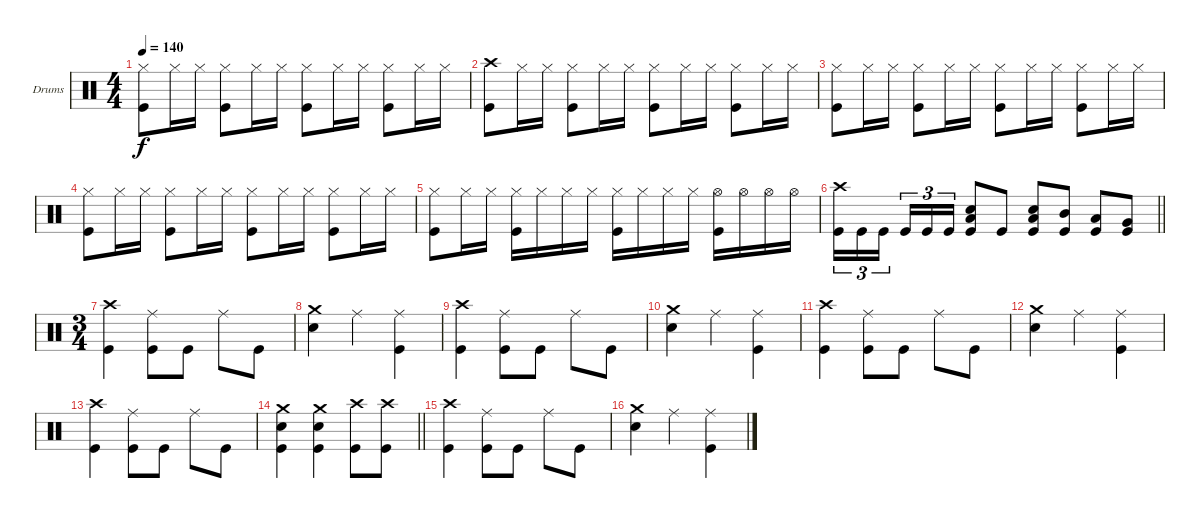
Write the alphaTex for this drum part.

\bracketExtendMode groupsimilarinstruments
\firstSystemTrackNameOrientation horizontal
\otherSystemsTrackNameOrientation horizontal
\track ("Drumkit" "Drums") {instrument percussion}
\staff {score}
\articulation defaults
\ts (4 4)
\tempo 140
\clef neutral
\ks c
("Hi-Hat (closed)" "Kick (hit)").8{dy f} "Hi-Hat (closed)".16 "Hi-Hat (closed)".16 ("Hi-Hat (closed)" "Kick (hit)").8 "Hi-Hat (closed)".16 "Hi-Hat (closed)".16 ("Hi-Hat (closed)" "Kick (hit)").8 "Hi-Hat (closed)".16 "Hi-Hat (closed)".16 ("Hi-Hat (closed)" "Kick (hit)").8 "Hi-Hat (closed)".16 "Hi-Hat (closed)".16 |
("Crash high (hit)" "Kick (hit)").8 "Hi-Hat (closed)".16 "Hi-Hat (closed)".16 ("Hi-Hat (closed)" "Kick (hit)").8 "Hi-Hat (closed)".16 "Hi-Hat (closed)".16 ("Hi-Hat (closed)" "Kick (hit)").8 "Hi-Hat (closed)".16 "Hi-Hat (closed)".16 ("Hi-Hat (closed)" "Kick (hit)").8 "Hi-Hat (closed)".16 "Hi-Hat (closed)".16 |
("Hi-Hat (closed)" "Kick (hit)").8 "Hi-Hat (closed)".16 "Hi-Hat (closed)".16 ("Hi-Hat (closed)" "Kick (hit)").8 "Hi-Hat (closed)".16 "Hi-Hat (closed)".16 ("Hi-Hat (closed)" "Kick (hit)").8 "Hi-Hat (closed)".16 "Hi-Hat (closed)".16 ("Hi-Hat (closed)" "Kick (hit)").8 "Hi-Hat (closed)".16 "Hi-Hat (closed)".16 |
("Hi-Hat (closed)" "Kick (hit)").8 "Hi-Hat (closed)".16 "Hi-Hat (closed)".16 ("Hi-Hat (closed)" "Kick (hit)").8 "Hi-Hat (closed)".16 "Hi-Hat (closed)".16 ("Hi-Hat (closed)" "Kick (hit)").8 "Hi-Hat (closed)".16 "Hi-Hat (closed)".16 ("Hi-Hat (closed)" "Kick (hit)").8 "Hi-Hat (closed)".16 "Hi-Hat (closed)".16 |
("Hi-Hat (closed)" "Kick (hit)").8 "Hi-Hat (closed)".16 "Hi-Hat (closed)".16 ("Hi-Hat (closed)" "Kick (hit)").16 "Hi-Hat (closed)".16 "Hi-Hat (closed)".16 "Hi-Hat (closed)".16 ("Hi-Hat (closed)" "Kick (hit)").16 "Hi-Hat (closed)".16 "Hi-Hat (closed)".16 "Hi-Hat (closed)".16 ("Hi-Hat (open)" "Kick (hit)").16 "Hi-Hat (open)".16 "Hi-Hat (open)".16 "Hi-Hat (open)".16 |
\barLineRight lightlight
("Crash high (hit)" "Kick (hit)").16{tu (3 2)} "Kick (hit)".16{tu (3 2)} "Kick (hit)".16{tu (3 2)} "Kick (hit)".16{tu (3 2)} "Kick (hit)".16{tu (3 2)} "Kick (hit)".16{tu (3 2)} ("Low Tom (hit)" "Snare (hit) 2" "Kick (hit)").8 "Kick (hit)".8 ("Low Tom (hit)" "Snare (hit) 2" "Kick (hit)").8 ("Mid Tom (hit)" "Kick (hit)").8 ("Low Tom (hit)" "Kick (hit)").8 ("Very Low Tom (hit)" "Kick (hit)").8 |
\ts (3 4)
\beaming (8 2 2 2 2)
("Crash high (hit)" "Kick (hit)").4 ("Ride (middle)" "Kick (hit)").8 "Kick (hit)".8 "Ride (middle)".8 "Kick (hit)".8 |
("Crash medium (hit)" "Snare (hit) 2").4 "Ride (middle)".4 ("Ride (middle)" "Kick (hit)").4 |
("Crash high (hit)" "Kick (hit)").4 ("Ride (middle)" "Kick (hit)").8 "Kick (hit)".8 "Ride (middle)".8 "Kick (hit)".8 |
("Crash medium (hit)" "Snare (hit) 2").4 "Ride (middle)".4 ("Ride (middle)" "Kick (hit)").4 |
("Crash high (hit)" "Kick (hit)").4 ("Ride (middle)" "Kick (hit)").8 "Kick (hit)".8 "Ride (middle)".8 "Kick (hit)".8 |
("Crash medium (hit)" "Snare (hit) 2").4 "Ride (middle)".4 ("Ride (middle)" "Kick (hit)").4 |
("Crash high (hit)" "Kick (hit)").4 ("Ride (middle)" "Kick (hit)").8 "Kick (hit)".8 "Ride (middle)".8 "Kick (hit)".8 |
\barLineRight lightlight
("Crash medium (hit)" "Snare (hit) 2" "Kick (hit)").4 ("Crash medium (hit)" "Snare (hit) 2" "Kick (hit)").4 ("Crash high (hit)" "Kick (hit)").8 ("Crash high (hit)" "Kick (hit)").8 |
("Crash high (hit)" "Kick (hit)").4 ("Ride (middle)" "Kick (hit)").8 "Kick (hit)".8 "Ride (middle)".8 "Kick (hit)".8 |
("Crash medium (hit)" "Snare (hit) 2").4 "Ride (middle)".4 ("Ride (middle)" "Kick (hit)").4
